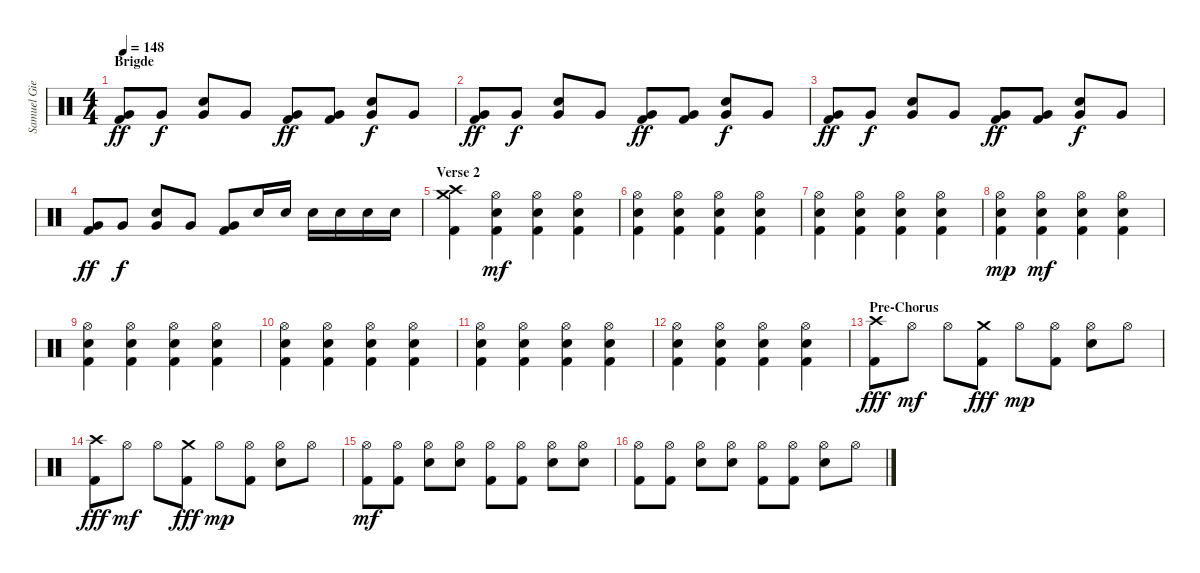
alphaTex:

\track ("Samuel Giers - Drum" "Samuel Gie") {instrument percussion}
\staff {score}
\articulation defaults
\ts (4 4)
\section ("" "Brigde")
\tempo 148
\clef neutral
\ks c
("Very Low Tom (hit)" "Kick (hit) 2").8{dy ff} "Very Low Tom (hit)".8{dy f} ("Snare (hit) 2" "Very Low Tom (hit)").8 "Very Low Tom (hit)".8 ("Very Low Tom (hit)" "Kick (hit) 2").8{dy ff} ("Very Low Tom (hit)" "Kick (hit) 2").8 ("Snare (hit) 2" "Very Low Tom (hit)").8{dy f} "Very Low Tom (hit)".8 |
("Very Low Tom (hit)" "Kick (hit) 2").8{dy ff} "Very Low Tom (hit)".8{dy f} ("Snare (hit) 2" "Very Low Tom (hit)").8 "Very Low Tom (hit)".8 ("Very Low Tom (hit)" "Kick (hit) 2").8{dy ff} ("Very Low Tom (hit)" "Kick (hit) 2").8 ("Snare (hit) 2" "Very Low Tom (hit)").8{dy f} "Very Low Tom (hit)".8 |
("Very Low Tom (hit)" "Kick (hit) 2").8{dy ff} "Very Low Tom (hit)".8{dy f} ("Snare (hit) 2" "Very Low Tom (hit)").8 "Very Low Tom (hit)".8 ("Very Low Tom (hit)" "Kick (hit) 2").8{dy ff} ("Very Low Tom (hit)" "Kick (hit) 2").8 ("Snare (hit) 2" "Very Low Tom (hit)").8{dy f} "Very Low Tom (hit)".8 |
("Very Low Tom (hit)" "Kick (hit) 2").8{dy ff} "Very Low Tom (hit)".8{dy f} ("Snare (hit) 2" "Very Low Tom (hit)").8 "Very Low Tom (hit)".8 ("Very Low Tom (hit)" "Kick (hit) 2").8 "Snare (hit) 2".16 "Snare (hit) 2".16 "Snare (hit) 2".16 "Snare (hit) 2".16 "Snare (hit) 2".16 "Snare (hit) 2".16 |
\section ("" "Verse 2")
("Crash medium (hit)" "Crash high (hit)" "Kick (hit) 2").4 ("Hi-Hat (open)" "Snare (hit) 2" "Kick (hit) 2").4{dy mf} ("Hi-Hat (open)" "Snare (hit) 2" "Kick (hit) 2").4 ("Hi-Hat (open)" "Snare (hit) 2" "Kick (hit) 2").4 |
("Hi-Hat (open)" "Snare (hit) 2" "Kick (hit) 2").4 ("Hi-Hat (open)" "Snare (hit) 2" "Kick (hit) 2").4 ("Hi-Hat (open)" "Snare (hit) 2" "Kick (hit) 2").4 ("Hi-Hat (open)" "Snare (hit) 2" "Kick (hit) 2").4 |
("Hi-Hat (open)" "Snare (hit) 2" "Kick (hit) 2").4 ("Hi-Hat (open)" "Snare (hit) 2" "Kick (hit) 2").4 ("Hi-Hat (open)" "Snare (hit) 2" "Kick (hit) 2").4 ("Hi-Hat (open)" "Snare (hit) 2" "Kick (hit) 2").4 |
("Hi-Hat (open)" "Snare (hit) 2" "Kick (hit) 2").4{dy mp} ("Hi-Hat (open)" "Snare (hit) 2" "Kick (hit) 2").4{dy mf} ("Hi-Hat (open)" "Snare (hit) 2" "Kick (hit) 2").4 ("Hi-Hat (open)" "Snare (hit) 2" "Kick (hit) 2").4 |
("Hi-Hat (open)" "Snare (hit) 2" "Kick (hit) 2").4 ("Hi-Hat (open)" "Snare (hit) 2" "Kick (hit) 2").4 ("Hi-Hat (open)" "Snare (hit) 2" "Kick (hit) 2").4 ("Hi-Hat (open)" "Snare (hit) 2" "Kick (hit) 2").4 |
("Hi-Hat (open)" "Snare (hit) 2" "Kick (hit) 2").4 ("Hi-Hat (open)" "Snare (hit) 2" "Kick (hit) 2").4 ("Hi-Hat (open)" "Snare (hit) 2" "Kick (hit) 2").4 ("Hi-Hat (open)" "Snare (hit) 2" "Kick (hit) 2").4 |
("Hi-Hat (open)" "Snare (hit) 2" "Kick (hit) 2").4 ("Hi-Hat (open)" "Snare (hit) 2" "Kick (hit) 2").4 ("Hi-Hat (open)" "Snare (hit) 2" "Kick (hit) 2").4 ("Hi-Hat (open)" "Snare (hit) 2" "Kick (hit) 2").4 |
("Hi-Hat (open)" "Snare (hit) 2" "Kick (hit) 2").4 ("Hi-Hat (open)" "Snare (hit) 2" "Kick (hit) 2").4 ("Hi-Hat (open)" "Snare (hit) 2" "Kick (hit) 2").4 ("Hi-Hat (open)" "Snare (hit) 2" "Kick (hit) 2").4 |
\section ("" "Pre-Chorus")
("Crash high (hit)" "Kick (hit) 2").8{dy fff} "Hi-Hat (open)".8{dy mf} "Hi-Hat (open)".8 ("Crash medium (hit)" "Kick (hit) 2").8{dy fff} "Hi-Hat (open)".8{dy mp} ("Hi-Hat (open)" "Kick (hit) 2").8 ("Hi-Hat (open)" "Snare (hit) 2").8 "Hi-Hat (open)".8 |
("Crash high (hit)" "Kick (hit) 2").8{dy fff} "Hi-Hat (open)".8{dy mf} "Hi-Hat (open)".8 ("Crash medium (hit)" "Kick (hit) 2").8{dy fff} "Hi-Hat (open)".8{dy mp} ("Hi-Hat (open)" "Kick (hit) 2").8 ("Hi-Hat (open)" "Snare (hit) 2").8 "Hi-Hat (open)".8 |
("Hi-Hat (open)" "Kick (hit) 2").8{dy mf} ("Hi-Hat (open)" "Kick (hit) 2").8 ("Hi-Hat (open)" "Snare (hit) 2").8 ("Hi-Hat (open)" "Snare (hit) 2").8 ("Hi-Hat (open)" "Kick (hit) 2").8 ("Hi-Hat (open)" "Kick (hit) 2").8 ("Hi-Hat (open)" "Snare (hit) 2").8 ("Hi-Hat (open)" "Snare (hit) 2").8 |
("Hi-Hat (open)" "Kick (hit) 2").8 ("Hi-Hat (open)" "Kick (hit) 2").8 ("Hi-Hat (open)" "Snare (hit) 2").8 ("Hi-Hat (open)" "Snare (hit) 2").8 ("Hi-Hat (open)" "Kick (hit) 2").8 ("Hi-Hat (open)" "Kick (hit) 2").8 ("Hi-Hat (open)" "Snare (hit) 2").8 "Hi-Hat (open)".8
